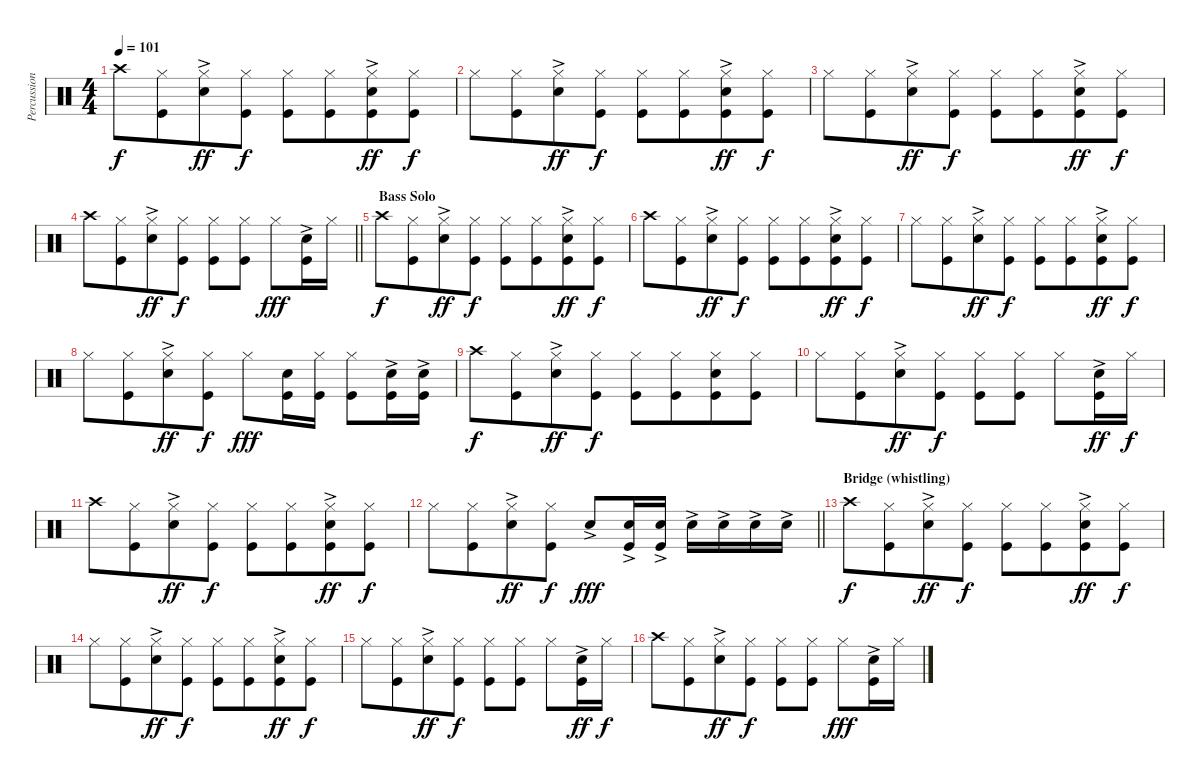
\track ("Percussion" "Percussion") {instrument percussion}
\staff {score}
\articulation defaults
\ts (4 4)
\tempo 101
\clef neutral
\ks c "Crash high (hit)".8{dy f}
("Hi-Hat (closed)" "Kick (hit)").8{beam merge} ("Hi-Hat (closed)" "Snare (hit) 2"{ac}).8{dy ff} ("Hi-Hat (closed)" "Kick (hit)").8{dy f} ("Hi-Hat (closed)" "Kick (hit)").8 ("Hi-Hat (closed)" "Kick (hit)").8{beam merge} ("Hi-Hat (closed)" "Snare (hit) 2"{ac} "Kick (hit)").8{dy ff} ("Hi-Hat (closed)" "Kick (hit)").8{dy f} |
"Hi-Hat (closed)".8 ("Hi-Hat (closed)" "Kick (hit)").8{beam merge} ("Hi-Hat (closed)" "Snare (hit) 2"{ac}).8{dy ff} ("Hi-Hat (closed)" "Kick (hit)").8{dy f} ("Hi-Hat (closed)" "Kick (hit)").8 ("Hi-Hat (closed)" "Kick (hit)").8{beam merge} ("Hi-Hat (closed)" "Snare (hit) 2"{ac} "Kick (hit)").8{dy ff} ("Hi-Hat (closed)" "Kick (hit)").8{dy f} |
"Hi-Hat (closed)".8 ("Hi-Hat (closed)" "Kick (hit)").8{beam merge} ("Hi-Hat (closed)" "Snare (hit) 2"{ac}).8{dy ff} ("Hi-Hat (closed)" "Kick (hit)").8{dy f} ("Hi-Hat (closed)" "Kick (hit)").8 ("Hi-Hat (closed)" "Kick (hit)").8{beam merge} ("Hi-Hat (closed)" "Snare (hit) 2"{ac} "Kick (hit)").8{dy ff} ("Hi-Hat (closed)" "Kick (hit)").8{dy f} |
\barLineRight lightlight "Crash high (hit)".8
("Hi-Hat (closed)" "Kick (hit)").8{beam merge} ("Hi-Hat (closed)" "Snare (hit) 2"{ac}).8{dy ff} ("Hi-Hat (closed)" "Kick (hit)").8{dy f} ("Hi-Hat (closed)" "Kick (hit)").8 ("Hi-Hat (closed)" "Kick (hit)").8 "Hi-Hat (closed)".8{dy fff} ("Snare (hit) 2"{ac} "Kick (hit)").16 "Hi-Hat (closed)".16 |
\section ("" " Bass Solo")
"Crash high (hit)".8{dy f} ("Hi-Hat (closed)" "Kick (hit)").8{beam merge} ("Hi-Hat (closed)" "Snare (hit) 2"{ac}).8{dy ff} ("Hi-Hat (closed)" "Kick (hit)").8{dy f} ("Hi-Hat (closed)" "Kick (hit)").8 ("Hi-Hat (closed)" "Kick (hit)").8{beam merge} ("Hi-Hat (closed)" "Snare (hit) 2"{ac} "Kick (hit)").8{dy ff} ("Hi-Hat (closed)" "Kick (hit)").8{dy f} |
"Crash high (hit)".8 ("Hi-Hat (closed)" "Kick (hit)").8{beam merge} ("Hi-Hat (closed)" "Snare (hit) 2"{ac}).8{dy ff} ("Hi-Hat (closed)" "Kick (hit)").8{dy f} ("Hi-Hat (closed)" "Kick (hit)").8 ("Hi-Hat (closed)" "Kick (hit)").8{beam merge} ("Hi-Hat (closed)" "Snare (hit) 2"{ac} "Kick (hit)").8{dy ff} ("Hi-Hat (closed)" "Kick (hit)").8{dy f} |
"Hi-Hat (closed)".8 ("Hi-Hat (closed)" "Kick (hit)").8{beam merge} ("Hi-Hat (closed)" "Snare (hit) 2"{ac}).8{dy ff} ("Hi-Hat (closed)" "Kick (hit)").8{dy f} ("Hi-Hat (closed)" "Kick (hit)").8 ("Hi-Hat (closed)" "Kick (hit)").8{beam merge} ("Hi-Hat (closed)" "Snare (hit) 2"{ac} "Kick (hit)").8{dy ff} ("Hi-Hat (closed)" "Kick (hit)").8{dy f} |
"Hi-Hat (closed)".8 ("Hi-Hat (closed)" "Kick (hit)").8{beam merge} ("Hi-Hat (closed)" "Snare (hit) 2"{ac}).8{dy ff} ("Hi-Hat (closed)" "Kick (hit)").8{dy f} "Hi-Hat (closed)".8{dy fff} ("Snare (hit) 2" "Kick (hit)").16 ("Hi-Hat (closed)" "Kick (hit)").16 ("Hi-Hat (closed)" "Kick (hit)").8 ("Snare (hit) 2"{ac} "Kick (hit)").16 ("Snare (hit) 2"{ac} "Kick (hit)").16 |
"Crash high (hit)".8{dy f} ("Hi-Hat (closed)" "Kick (hit)").8{beam merge} ("Hi-Hat (closed)" "Snare (hit) 2"{ac}).8{dy ff} ("Hi-Hat (closed)" "Kick (hit)").8{dy f} ("Hi-Hat (closed)" "Kick (hit)").8 ("Hi-Hat (closed)" "Kick (hit)").8{beam merge} ("Hi-Hat (closed)" "Snare (hit) 2" "Kick (hit)").8 ("Hi-Hat (closed)" "Kick (hit)").8 |
"Hi-Hat (closed)".8 ("Hi-Hat (closed)" "Kick (hit)").8{beam merge} ("Hi-Hat (closed)" "Snare (hit) 2"{ac}).8{dy ff} ("Hi-Hat (closed)" "Kick (hit)").8{dy f} ("Hi-Hat (closed)" "Kick (hit)").8 ("Hi-Hat (closed)" "Kick (hit)").8 "Hi-Hat (closed)".8 ("Snare (hit) 2"{ac} "Kick (hit)").16{dy ff} "Hi-Hat (closed)".16{dy f} |
"Crash high (hit)".8 ("Hi-Hat (closed)" "Kick (hit)").8{beam merge} ("Hi-Hat (closed)" "Snare (hit) 2"{ac}).8{dy ff} ("Hi-Hat (closed)" "Kick (hit)").8{dy f} ("Hi-Hat (closed)" "Kick (hit)").8 ("Hi-Hat (closed)" "Kick (hit)").8{beam merge} ("Hi-Hat (closed)" "Snare (hit) 2"{ac} "Kick (hit)").8{dy ff} ("Hi-Hat (closed)" "Kick (hit)").8{dy f} |
\barLineRight lightlight "Hi-Hat (closed)".8
("Hi-Hat (closed)" "Kick (hit)").8{beam merge} ("Hi-Hat (closed)" "Snare (hit) 2"{ac}).8{dy ff} ("Hi-Hat (closed)" "Kick (hit)").8{dy f} "Snare (hit) 2"{ac}.8{dy fff} ("Snare (hit) 2"{ac} "Kick (hit)").16 ("Snare (hit) 2"{ac} "Kick (hit)").16 "Snare (hit) 2"{ac}.16 "Snare (hit) 2"{ac}.16 "Snare (hit) 2"{ac}.16 "Snare (hit) 2"{ac}.16 |
\section ("" "Bridge (whistling)")
"Crash high (hit)".8{dy f} ("Hi-Hat (closed)" "Kick (hit)").8{beam merge} ("Hi-Hat (closed)" "Snare (hit) 2"{ac}).8{dy ff} ("Hi-Hat (closed)" "Kick (hit)").8{dy f} ("Hi-Hat (closed)" "Kick (hit)").8 ("Hi-Hat (closed)" "Kick (hit)").8{beam merge} ("Hi-Hat (closed)" "Snare (hit) 2"{ac} "Kick (hit)").8{dy ff} ("Hi-Hat (closed)" "Kick (hit)").8{dy f} |
"Hi-Hat (closed)".8 ("Hi-Hat (closed)" "Kick (hit)").8{beam merge} ("Hi-Hat (closed)" "Snare (hit) 2"{ac}).8{dy ff} ("Hi-Hat (closed)" "Kick (hit)").8{dy f} ("Hi-Hat (closed)" "Kick (hit)").8 ("Hi-Hat (closed)" "Kick (hit)").8{beam merge} ("Hi-Hat (closed)" "Snare (hit) 2"{ac} "Kick (hit)").8{dy ff} ("Hi-Hat (closed)" "Kick (hit)").8{dy f} |
"Hi-Hat (closed)".8 ("Hi-Hat (closed)" "Kick (hit)").8{beam merge} ("Hi-Hat (closed)" "Snare (hit) 2"{ac}).8{dy ff} ("Hi-Hat (closed)" "Kick (hit)").8{dy f} ("Hi-Hat (closed)" "Kick (hit)").8 ("Hi-Hat (closed)" "Kick (hit)").8 "Hi-Hat (closed)".8 ("Snare (hit) 2"{ac} "Kick (hit)").16{dy ff} "Hi-Hat (closed)".16{dy f} |
"Crash high (hit)".8 ("Hi-Hat (closed)" "Kick (hit)").8{beam merge} ("Hi-Hat (closed)" "Snare (hit) 2"{ac}).8{dy ff} ("Hi-Hat (closed)" "Kick (hit)").8{dy f} ("Hi-Hat (closed)" "Kick (hit)").8 ("Hi-Hat (closed)" "Kick (hit)").8 "Hi-Hat (closed)".8{dy fff} ("Snare (hit) 2"{ac} "Kick (hit)").16 "Hi-Hat (closed)".16
